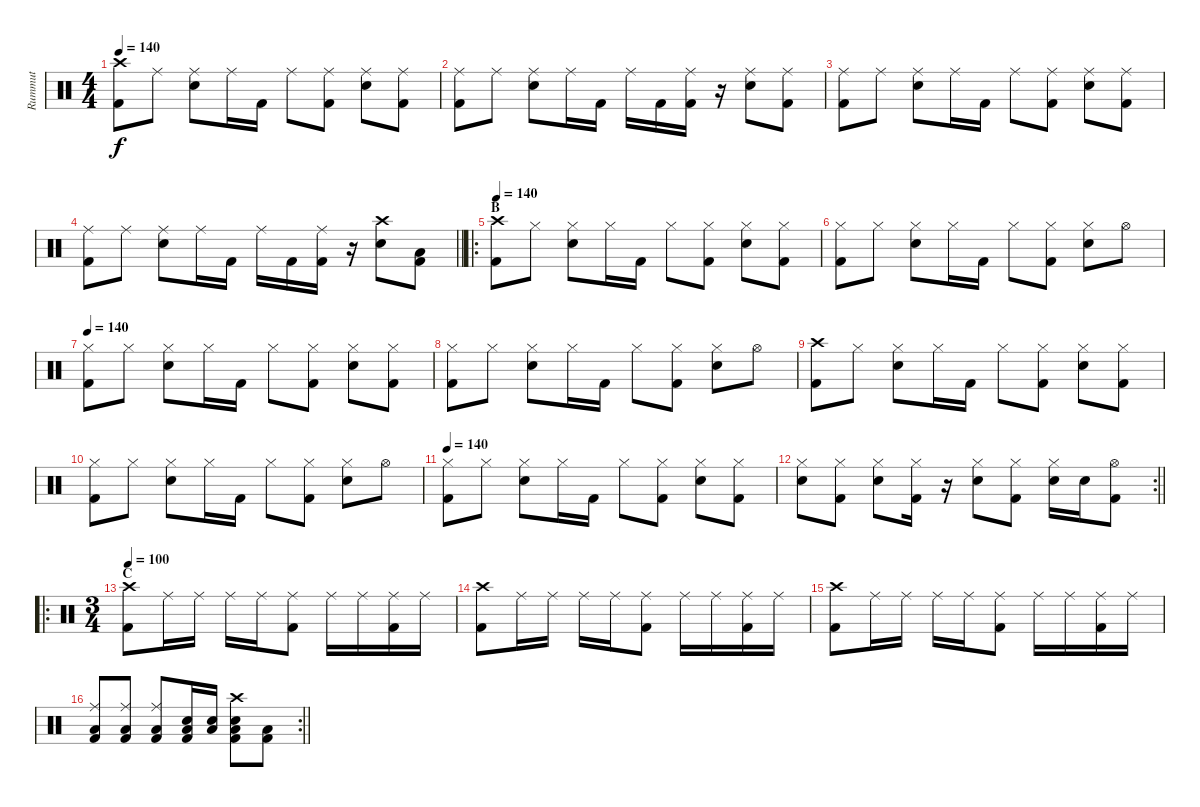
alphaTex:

\track ("Rummut" "Rummut") {instrument percussion}
\staff {score}
\articulation defaults
\ts (4 4)
\tempo 140
\clef neutral
\ks c
("Crash high (hit)" "Kick (hit) 2").8{dy f} "Ride (middle)".8 ("Ride (middle)" "Snare (hit) 2").8 "Ride (middle)".16 "Kick (hit) 2".16 "Ride (middle)".8 ("Ride (middle)" "Kick (hit) 2").8 ("Ride (middle)" "Snare (hit) 2").8 ("Ride (middle)" "Kick (hit) 2").8 |
("Ride (middle)" "Kick (hit) 2").8 "Ride (middle)".8 ("Ride (middle)" "Snare (hit) 2").8 "Ride (middle)".16 "Kick (hit) 2".16 "Ride (middle)".16 "Kick (hit) 2".16 ("Ride (middle)" "Kick (hit) 2").16 r.16 ("Ride (middle)" "Snare (hit) 2").8 ("Ride (middle)" "Kick (hit) 2").8 |
("Ride (middle)" "Kick (hit) 2").8 "Ride (middle)".8 ("Ride (middle)" "Snare (hit) 2").8 "Ride (middle)".16 "Kick (hit) 2".16 "Ride (middle)".8 ("Ride (middle)" "Kick (hit) 2").8 ("Ride (middle)" "Snare (hit) 2").8 ("Ride (middle)" "Kick (hit) 2").8 |
\barLineRight lightlight
("Ride (middle)" "Kick (hit) 2").8 "Ride (middle)".8 ("Ride (middle)" "Snare (hit) 2").8 "Ride (middle)".16 "Kick (hit) 2".16 "Ride (middle)".16 "Kick (hit) 2".16 ("Ride (middle)" "Kick (hit) 2").16 r.16 ("Crash high (hit)" "Snare (hit) 2").8 ("Low Floor Tom (hit)" "Kick (hit) 2").8 |
\ro
\section ("" "B")
\tempo 140
("Crash high (hit)" "Kick (hit) 2").8 "Hi-Hat (closed)".8 ("Hi-Hat (closed)" "Snare (hit) 2").8 "Hi-Hat (closed)".16 "Kick (hit) 2".16 "Hi-Hat (closed)".8 ("Hi-Hat (closed)" "Kick (hit) 2").8 ("Hi-Hat (closed)" "Snare (hit) 2").8 ("Hi-Hat (closed)" "Kick (hit) 2").8 |
("Hi-Hat (closed)" "Kick (hit) 2").8 "Hi-Hat (closed)".8 ("Hi-Hat (closed)" "Snare (hit) 2").8 "Hi-Hat (closed)".16 "Kick (hit) 2".16 "Hi-Hat (closed)".8 ("Hi-Hat (closed)" "Kick (hit) 2").8 ("Hi-Hat (closed)" "Snare (hit) 2").8 "Hi-Hat (open)".8 |
\tempo 140
("Hi-Hat (closed)" "Kick (hit) 2").8 "Hi-Hat (closed)".8 ("Hi-Hat (closed)" "Snare (hit) 2").8 "Hi-Hat (closed)".16 "Kick (hit) 2".16 "Hi-Hat (closed)".8 ("Hi-Hat (closed)" "Kick (hit) 2").8 ("Hi-Hat (closed)" "Snare (hit) 2").8 ("Hi-Hat (closed)" "Kick (hit) 2").8 |
("Hi-Hat (closed)" "Kick (hit) 2").8 "Hi-Hat (closed)".8 ("Hi-Hat (closed)" "Snare (hit) 2").8 "Hi-Hat (closed)".16 "Kick (hit) 2".16 "Hi-Hat (closed)".8 ("Hi-Hat (closed)" "Kick (hit) 2").8 ("Hi-Hat (closed)" "Snare (hit) 2").8 "Hi-Hat (open)".8 |
("Crash high (hit)" "Kick (hit) 2").8 "Hi-Hat (closed)".8 ("Hi-Hat (closed)" "Snare (hit) 2").8 "Hi-Hat (closed)".16 "Kick (hit) 2".16 "Hi-Hat (closed)".8 ("Hi-Hat (closed)" "Kick (hit) 2").8 ("Hi-Hat (closed)" "Snare (hit) 2").8 ("Hi-Hat (closed)" "Kick (hit) 2").8 |
("Hi-Hat (closed)" "Kick (hit) 2").8 "Hi-Hat (closed)".8 ("Hi-Hat (closed)" "Snare (hit) 2").8 "Hi-Hat (closed)".16 "Kick (hit) 2".16 "Hi-Hat (closed)".8 ("Hi-Hat (closed)" "Kick (hit) 2").8 ("Hi-Hat (closed)" "Snare (hit) 2").8 "Hi-Hat (open)".8 |
\tempo 140
("Hi-Hat (closed)" "Kick (hit) 2").8 "Hi-Hat (closed)".8 ("Hi-Hat (closed)" "Snare (hit) 2").8 "Hi-Hat (closed)".16 "Kick (hit) 2".16 "Hi-Hat (closed)".8 ("Hi-Hat (closed)" "Kick (hit) 2").8 ("Hi-Hat (closed)" "Snare (hit) 2").8 ("Hi-Hat (closed)" "Kick (hit) 2").8 |
\rc 2
\barLineRight lightlight
("Hi-Hat (closed)" "Snare (hit) 2").8 ("Hi-Hat (closed)" "Kick (hit) 2").8 ("Hi-Hat (closed)" "Snare (hit) 2").8 ("Hi-Hat (closed)" "Kick (hit) 2").16 r.16 ("Hi-Hat (closed)" "Snare (hit) 2").8 ("Hi-Hat (closed)" "Kick (hit) 2").8 ("Hi-Hat (closed)" "Snare (hit) 2").16 "Snare (hit) 2".16 ("Hi-Hat (open)" "Kick (hit) 2").8 |
\ro
\ts (3 4)
\section ("" "C")
\tempo 100
("Crash high (hit)" "Kick (hit) 2").8 "Ride (middle)".16 "Ride (middle)".16 "Ride (middle)".16 "Ride (middle)".16 ("Ride (middle)" "Kick (hit) 2").8 "Ride (middle)".16 "Ride (middle)".16 ("Ride (middle)" "Kick (hit) 2").16 "Ride (middle)".16 |
("Crash high (hit)" "Kick (hit) 2").8 "Ride (middle)".16 "Ride (middle)".16 "Ride (middle)".16 "Ride (middle)".16 ("Ride (middle)" "Kick (hit) 2").8 "Ride (middle)".16 "Ride (middle)".16 ("Ride (middle)" "Kick (hit) 2").16 "Ride (middle)".16 |
("Crash high (hit)" "Kick (hit) 2").8 "Ride (middle)".16 "Ride (middle)".16 "Ride (middle)".16 "Ride (middle)".16 ("Ride (middle)" "Kick (hit) 2").8 "Ride (middle)".16 "Ride (middle)".16 ("Ride (middle)" "Kick (hit) 2").16 "Ride (middle)".16 |
\rc 2
\barLineRight lightlight
("Ride (middle)" "Low Floor Tom (hit)" "Kick (hit) 2").8 ("Ride (middle)" "Low Floor Tom (hit)" "Kick (hit) 2").8 ("Ride (middle)" "Low Floor Tom (hit)" "Kick (hit) 2").8 ("Snare (hit) 2" "Low Floor Tom (hit)" "Kick (hit) 2").16 ("Snare (hit) 2" "Low Floor Tom (hit)").16 ("Crash high (hit)" "Snare (hit) 2" "Low Floor Tom (hit)" "Kick (hit) 2").8 ("Low Floor Tom (hit)" "Kick (hit) 2").8
